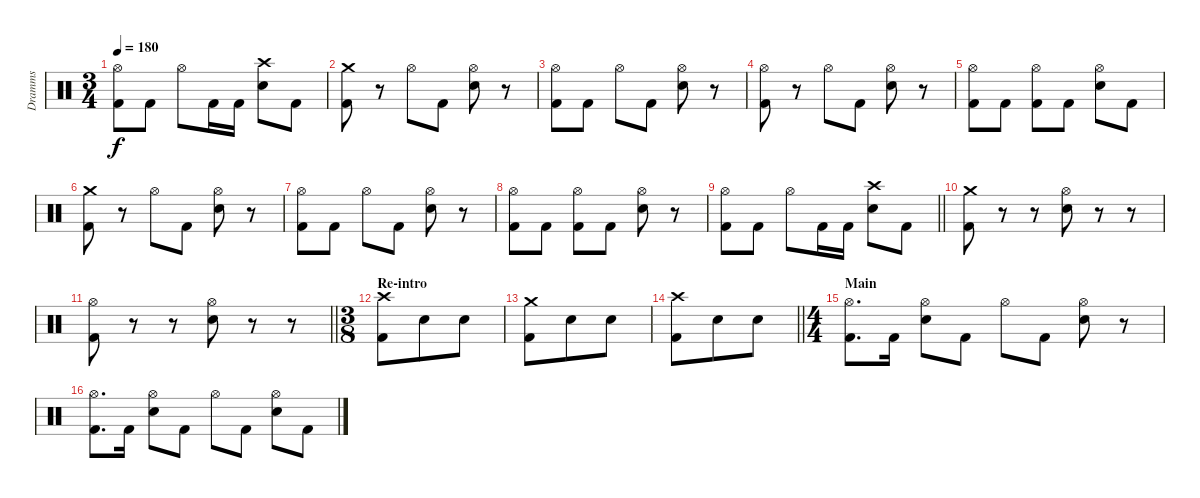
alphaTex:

\track ("Dramms" "Dramms") {instrument percussion}
\staff {score}
\articulation defaults
\ts (3 4)
\tempo 180
\clef neutral
\ks c
("Hi-Hat (open)" "Kick (hit) 2").8{dy f} "Kick (hit) 2".8 "Hi-Hat (open)".8 "Kick (hit) 2".16 "Kick (hit) 2".16 ("Crash high (hit)" "Electric Snare (hit)").8 "Kick (hit) 2".8 |
("Crash medium (hit)" "Kick (hit) 2").8 r.8 "Hi-Hat (open)".8 "Kick (hit) 2".8 ("Hi-Hat (open)" "Electric Snare (hit)").8 r.8 |
("Hi-Hat (open)" "Kick (hit) 2").8 "Kick (hit) 2".8 "Hi-Hat (open)".8 "Kick (hit) 2".8 ("Hi-Hat (open)" "Electric Snare (hit)").8 r.8 |
("Hi-Hat (open)" "Kick (hit) 2").8 r.8 "Hi-Hat (open)".8 "Kick (hit) 2".8 ("Hi-Hat (open)" "Electric Snare (hit)").8 r.8 |
("Hi-Hat (open)" "Kick (hit) 2").8 "Kick (hit) 2".8 ("Hi-Hat (open)" "Kick (hit) 2").8 "Kick (hit) 2".8 ("Hi-Hat (open)" "Electric Snare (hit)").8 "Kick (hit) 2".8 |
("Crash medium (hit)" "Kick (hit) 2").8 r.8 "Hi-Hat (open)".8 "Kick (hit) 2".8 ("Hi-Hat (open)" "Electric Snare (hit)").8 r.8 |
("Hi-Hat (open)" "Kick (hit) 2").8 "Kick (hit) 2".8 "Hi-Hat (open)".8 "Kick (hit) 2".8 ("Hi-Hat (open)" "Electric Snare (hit)").8 r.8 |
("Hi-Hat (open)" "Kick (hit) 2").8 "Kick (hit) 2".8 ("Hi-Hat (open)" "Kick (hit) 2").8 "Kick (hit) 2".8 ("Hi-Hat (open)" "Electric Snare (hit)").8 r.8 |
\barLineRight lightlight
("Hi-Hat (open)" "Kick (hit) 2").8 "Kick (hit) 2".8 "Hi-Hat (open)".8 "Kick (hit) 2".16 "Kick (hit) 2".16 ("Crash high (hit)" "Electric Snare (hit)").8 "Kick (hit) 2".8 |
("Crash medium (hit)" "Kick (hit) 2").8 r.8 r.8 ("Hi-Hat (open)" "Electric Snare (hit)").8 r.8 r.8 |
\barLineRight lightlight
("Hi-Hat (open)" "Kick (hit) 2").8 r.8 r.8 ("Hi-Hat (open)" "Electric Snare (hit)").8 r.8 r.8 |
\ts (3 8)
\section ("" "Re-intro")
("Crash high (hit)" "Kick (hit) 2").8 "Electric Snare (hit)".8 "Electric Snare (hit)".8 |
("Crash medium (hit)" "Kick (hit) 2").8 "Electric Snare (hit)".8 "Electric Snare (hit)".8 |
\barLineRight lightlight
("Crash high (hit)" "Kick (hit) 2").8 "Electric Snare (hit)".8 "Electric Snare (hit)".8 |
\ts (4 4)
\section ("" "Main")
("Hi-Hat (open)" "Kick (hit) 2").8{d} "Kick (hit) 2".16 ("Hi-Hat (open)" "Electric Snare (hit)").8 "Kick (hit) 2".8 "Hi-Hat (open)".8 "Kick (hit) 2".8 ("Hi-Hat (open)" "Electric Snare (hit)").8 r.8 |
("Hi-Hat (open)" "Kick (hit) 2").8{d} "Kick (hit) 2".16 ("Hi-Hat (open)" "Electric Snare (hit)").8 "Kick (hit) 2".8 "Hi-Hat (open)".8 "Kick (hit) 2".8 ("Hi-Hat (open)" "Electric Snare (hit)").8 "Kick (hit) 2".8
